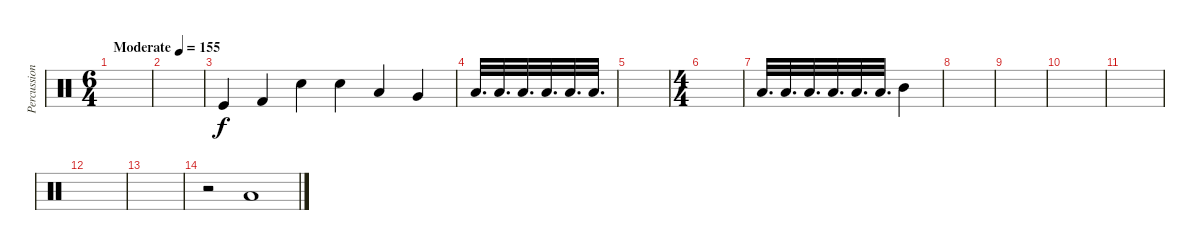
\track ("Percussion" "Percussion") {instrument percussion}
\staff {score}
\articulation defaults
\ts (6 4)
\tempo (155 "Moderate")
\clef neutral
\ks c
|
|
"Kick (hit)".4 "Kick (hit) 2".4 "Snare (hit) 2".4 "Electric Snare (hit)".4 "Low Floor Tom (hit)".4 "Very Low Tom (hit)".4 |
"Low Tom (hit)".32{d} "Low Tom (hit)".32{d} "Low Tom (hit)".32{d} "Low Tom (hit)".32{d} "Low Tom (hit)".32{d} "Low Tom (hit)".32{d} |
|
\ts (4 4)
|
"Low Tom (hit)".32{d} "Low Tom (hit)".32{d} "Low Tom (hit)".32{d} "Low Tom (hit)".32{d} "Low Tom (hit)".32{d} "Low Tom (hit)".32{d} "Mid Tom (hit)".4 |
|
|
|
|
|
|
r.2 "Low Floor Tom (hit)".1
